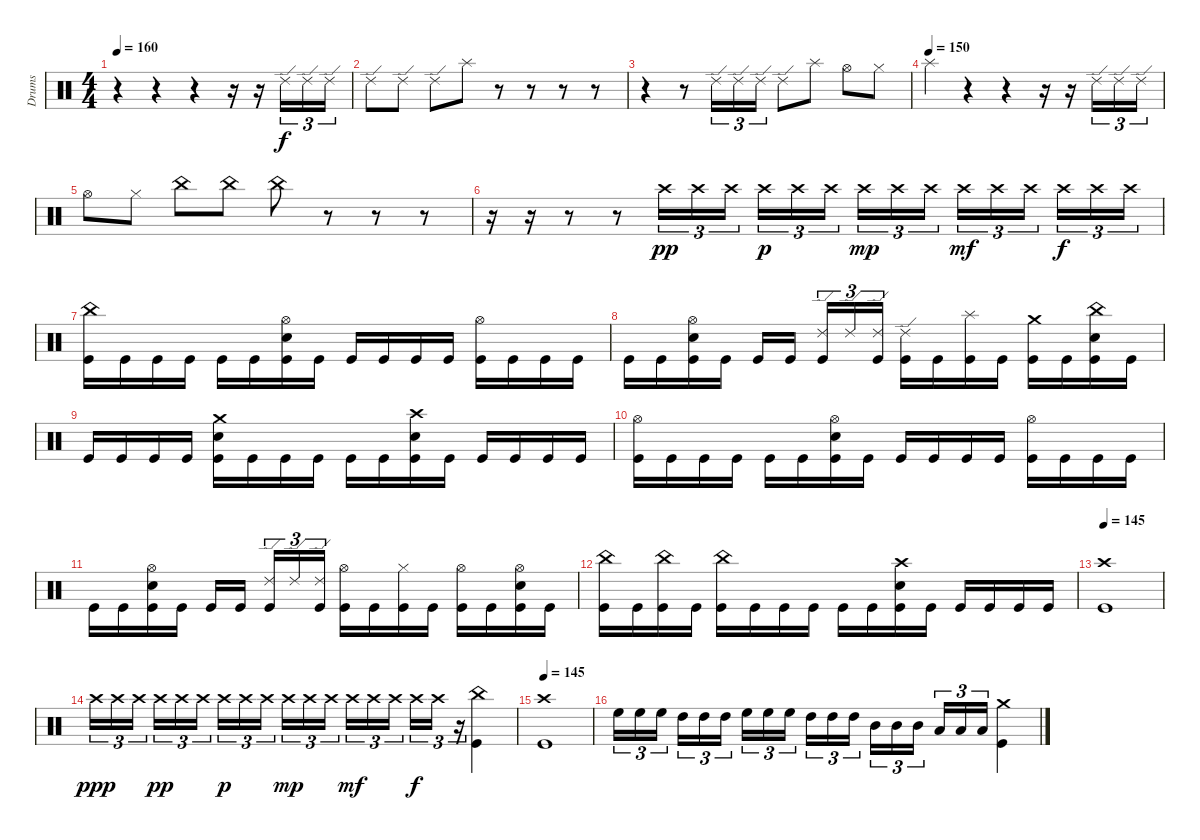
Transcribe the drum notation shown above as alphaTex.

\track ("Drums" "Drums") {instrument percussion}
\staff {score}
\articulation defaults
\ts (4 4)
\tempo 160
\tempo 150
\tempo 160
\clef neutral
\ks c
r.4{dy f} r.4 r.4 r.16 r.16 "Ride (edge) 2".16{tu (3 2)} "Ride (edge) 2".16{tu (3 2)} "Ride (edge) 2".16{tu (3 2)} |
"Ride (edge) 2".8 "Ride (edge) 2".8 "Ride (edge) 2".8 "Splash (hit)".8 r.8 r.8 r.8 r.8 |
r.4 r.8 "Ride (edge) 2".16{tu (3 2)} "Ride (edge) 2".16{tu (3 2)} "Ride (edge) 2".16{tu (3 2)} "Ride (edge) 2".8 "Splash (hit)".8 "Hi-Hat (open)".8 "Hi-Hat (closed)".8 |
\tempo (150)
"Splash (hit)".4 r.4 r.4 r.16 r.16 "Ride (edge) 2".16{tu (3 2)} "Ride (edge) 2".16{tu (3 2)} "Ride (edge) 2".16{tu (3 2)} |
"Hi-Hat (open)".8 "Hi-Hat (closed)".8 "China (hit)".8 "China (hit)".8 "China (hit)".8 r.8 r.8 r.8 |
r.16 r.16 r.8 r.8 "Crash high (hit)".16{tu (3 2) dy pp} "Crash high (hit)".16{tu (3 2)} "Crash high (hit)".16{tu (3 2)} "Crash high (hit)".16{tu (3 2) dy p} "Crash high (hit)".16{tu (3 2)} "Crash high (hit)".16{tu (3 2)} "Crash high (hit)".16{tu (3 2) dy mp} "Crash high (hit)".16{tu (3 2)} "Crash high (hit)".16{tu (3 2)} "Crash high (hit)".16{tu (3 2) dy mf} "Crash high (hit)".16{tu (3 2)} "Crash high (hit)".16{tu (3 2)} "Crash high (hit)".16{tu (3 2) dy f} "Crash high (hit)".16{tu (3 2)} "Crash high (hit)".16{tu (3 2)} |
("Kick (hit)" "China (hit)").16 "Kick (hit)".16 "Kick (hit)".16 "Kick (hit)".16 "Kick (hit)".16 "Kick (hit)".16 ("Kick (hit)" "Electric Snare (hit)" "Hi-Hat (open)").16 "Kick (hit)".16 "Kick (hit)".16 "Kick (hit)".16 "Kick (hit)".16 "Kick (hit)".16 ("Kick (hit)" "Hi-Hat (open)").16 "Kick (hit)".16 "Kick (hit)".16 "Kick (hit)".16 |
"Kick (hit)".16 "Kick (hit)".16 ("Kick (hit)" "Electric Snare (hit)" "Hi-Hat (open)").16 "Kick (hit)".16 "Kick (hit)".16 "Kick (hit)".16 ("Kick (hit)" "Ride (edge) 2").16{tu (3 2)} "Ride (edge) 2".16{tu (3 2)} ("Kick (hit)" "Ride (edge) 2").16{tu (3 2)} ("Kick (hit)" "Ride (edge) 2").16 "Kick (hit)".16 ("Kick (hit)" "Splash (hit)").16 "Kick (hit)".16 ("Kick (hit)" "Crash medium (hit)").16 "Kick (hit)".16 ("Kick (hit)" "Electric Snare (hit)" "China (hit)").16 "Kick (hit)".16 |
"Kick (hit)".16 "Kick (hit)".16 "Kick (hit)".16 "Kick (hit)".16 ("Kick (hit)" "Electric Snare (hit)" "Crash medium (hit)").16 "Kick (hit)".16 "Kick (hit)".16 "Kick (hit)".16 "Kick (hit)".16 "Kick (hit)".16 ("Kick (hit)" "Electric Snare (hit)" "Crash high (hit)").16 "Kick (hit)".16 "Kick (hit)".16 "Kick (hit)".16 "Kick (hit)".16 "Kick (hit)".16 |
("Kick (hit)" "Hi-Hat (open)").16 "Kick (hit)".16 "Kick (hit)".16 "Kick (hit)".16 "Kick (hit)".16 "Kick (hit)".16 ("Kick (hit)" "Electric Snare (hit)" "Hi-Hat (open)").16 "Kick (hit)".16 "Kick (hit)".16 "Kick (hit)".16 "Kick (hit)".16 "Kick (hit)".16 ("Kick (hit)" "Hi-Hat (open)").16 "Kick (hit)".16 "Kick (hit)".16 "Kick (hit)".16 |
"Kick (hit)".16 "Kick (hit)".16 ("Kick (hit)" "Electric Snare (hit)" "Hi-Hat (open)").16 "Kick (hit)".16 "Kick (hit)".16 "Kick (hit)".16 ("Kick (hit)" "Ride (edge) 2").16{tu (3 2)} "Ride (edge) 2".16{tu (3 2)} ("Kick (hit)" "Ride (edge) 2").16{tu (3 2)} ("Kick (hit)" "Hi-Hat (open)").16 "Kick (hit)".16 ("Kick (hit)" "Hi-Hat (closed)").16 "Kick (hit)".16 ("Kick (hit)" "Hi-Hat (open)").16 "Kick (hit)".16 ("Kick (hit)" "Electric Snare (hit)" "Hi-Hat (open)").16 "Kick (hit)".16 |
("Kick (hit)" "China (hit)").16 "Kick (hit)".16 ("Kick (hit)" "China (hit)").16 "Kick (hit)".16 ("Kick (hit)" "China (hit)").16 "Kick (hit)".16 "Kick (hit)".16 "Kick (hit)".16 "Kick (hit)".16 "Kick (hit)".16 ("Kick (hit)" "Electric Snare (hit)" "Crash high (hit)").16 "Kick (hit)".16 "Kick (hit)".16 "Kick (hit)".16 "Kick (hit)".16 "Kick (hit)".16 |
\tempo 145
("Crash high (hit)" "Kick (hit)").1 |
"Crash high (hit)".16{tu (3 2) dy ppp} "Crash high (hit)".16{tu (3 2)} "Crash high (hit)".16{tu (3 2)} "Crash high (hit)".16{tu (3 2) dy pp} "Crash high (hit)".16{tu (3 2)} "Crash high (hit)".16{tu (3 2)} "Crash high (hit)".16{tu (3 2) dy p} "Crash high (hit)".16{tu (3 2)} "Crash high (hit)".16{tu (3 2)} "Crash high (hit)".16{tu (3 2) dy mp} "Crash high (hit)".16{tu (3 2)} "Crash high (hit)".16{tu (3 2)} "Crash high (hit)".16{tu (3 2) dy mf} "Crash high (hit)".16{tu (3 2)} "Crash high (hit)".16{tu (3 2)} "Crash high (hit)".16{tu (3 2) dy f} "Crash high (hit)".16{tu (3 2)} r.16{tu (3 2)} ("Kick (hit)" "China (hit)").4 |
\tempo 145
("Crash high (hit)" "Kick (hit)").1 |
"High Floor Tom (hit)".16{tu (3 2)} "High Floor Tom (hit)".16{tu (3 2)} "High Floor Tom (hit)".16{tu (3 2)} "High Tom (hit)".16{tu (3 2)} "High Tom (hit)".16{tu (3 2)} "High Tom (hit)".16{tu (3 2)} "High Floor Tom (hit)".16{tu (3 2)} "High Floor Tom (hit)".16{tu (3 2)} "High Floor Tom (hit)".16{tu (3 2)} "High Tom (hit)".16{tu (3 2)} "High Tom (hit)".16{tu (3 2)} "High Tom (hit)".16{tu (3 2)} "Mid Tom (hit)".16{tu (3 2)} "Mid Tom (hit)".16{tu (3 2)} "Mid Tom (hit)".16{tu (3 2)} "Low Tom (hit)".16{tu (3 2)} "Low Tom (hit)".16{tu (3 2)} "Low Tom (hit)".16{tu (3 2)} ("Kick (hit)" "Crash medium (hit)").4
